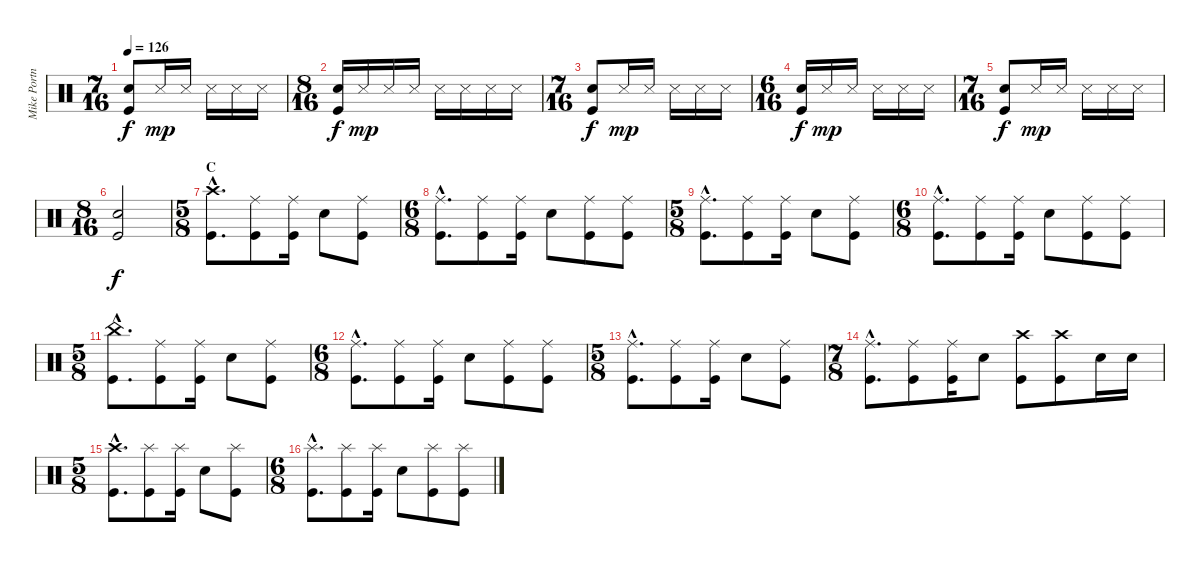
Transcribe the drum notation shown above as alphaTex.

\track ("Mike Portnoy" "Mike Portn") {instrument percussion}
\staff {score}
\articulation defaults
\ts (7 16)
\tempo 126
\clef neutral
\ks c
("Electric Snare (hit)" "Kick (hit)").8{dy f} "Snare (side stick) 3".16{dy mp} "Snare (side stick) 3".16 "Snare (side stick) 3".16 "Snare (side stick) 3".16 "Snare (side stick) 3".16 |
\ts (8 16)
("Electric Snare (hit)" "Kick (hit)").16{dy f} "Snare (side stick) 3".16{dy mp} "Snare (side stick) 3".16 "Snare (side stick) 3".16 "Snare (side stick) 3".16 "Snare (side stick) 3".16 "Snare (side stick) 3".16 "Snare (side stick) 3".16 |
\ts (7 16)
("Electric Snare (hit)" "Kick (hit)").8{dy f} "Snare (side stick) 3".16{dy mp} "Snare (side stick) 3".16 "Snare (side stick) 3".16 "Snare (side stick) 3".16 "Snare (side stick) 3".16 |
\ts (6 16)
("Electric Snare (hit)" "Kick (hit)").16{dy f} "Snare (side stick) 3".16{dy mp} "Snare (side stick) 3".16 "Snare (side stick) 3".16 "Snare (side stick) 3".16 "Snare (side stick) 3".16 |
\ts (7 16)
("Electric Snare (hit)" "Kick (hit)").8{dy f} "Snare (side stick) 3".16{dy mp} "Snare (side stick) 3".16 "Snare (side stick) 3".16 "Snare (side stick) 3".16 "Snare (side stick) 3".16 |
\ts (8 16)
("Electric Snare (hit)" "Kick (hit)").2{dy f} |
\ts (5 8)
\section ("" "C")
("Crash high (hit)"{hac} "Kick (hit)"{hac}).8{d} ("Ride (middle)" "Kick (hit)").8 ("Ride (middle)" "Kick (hit)").16 "Electric Snare (hit)".8 ("Ride (middle)" "Kick (hit)").8 |
\ts (6 8)
("Ride (middle)"{hac} "Kick (hit)"{hac}).8{d} ("Ride (middle)" "Kick (hit)").8 ("Ride (middle)" "Kick (hit)").16 "Electric Snare (hit)".8 ("Ride (middle)" "Kick (hit)").8 ("Ride (middle)" "Kick (hit)").8 |
\ts (5 8)
("Ride (middle)"{hac} "Kick (hit)"{hac}).8{d} ("Ride (middle)" "Kick (hit)").8 ("Ride (middle)" "Kick (hit)").16 "Electric Snare (hit)".8 ("Ride (middle)" "Kick (hit)").8 |
\ts (6 8)
("Ride (middle)"{hac} "Kick (hit)"{hac}).8{d} ("Ride (middle)" "Kick (hit)").8 ("Ride (middle)" "Kick (hit)").16 "Electric Snare (hit)".8 ("Ride (middle)" "Kick (hit)").8 ("Ride (middle)" "Kick (hit)").8 |
\ts (5 8)
("China (hit)"{hac} "Kick (hit)"{hac}).8{d} ("Ride (middle)" "Kick (hit)").8 ("Ride (middle)" "Kick (hit)").16 "Electric Snare (hit)".8 ("Ride (middle)" "Kick (hit)").8 |
\ts (6 8)
("Ride (middle)"{hac} "Kick (hit)"{hac}).8{d} ("Ride (middle)" "Kick (hit)").8 ("Ride (middle)" "Kick (hit)").16 "Electric Snare (hit)".8 ("Ride (middle)" "Kick (hit)").8 ("Ride (middle)" "Kick (hit)").8 |
\ts (5 8)
("Ride (middle)"{hac} "Kick (hit)"{hac}).8{d} ("Ride (middle)" "Kick (hit)").8 ("Ride (middle)" "Kick (hit)").16 "Electric Snare (hit)".8 ("Ride (middle)" "Kick (hit)").8 |
\ts (7 8)
("Ride (middle)"{hac} "Kick (hit)"{hac}).8{d} ("Ride (middle)" "Kick (hit)").8 ("Ride (middle)" "Kick (hit)").16 "Electric Snare (hit)".8 ("Crash high (hit)" "Kick (hit)").8 ("Crash high (hit)" "Kick (hit)").8 "Electric Snare (hit)".16 "Electric Snare (hit)".16 |
\ts (5 8)
("Crash high (hit)"{hac} "Kick (hit)"{hac}).8{d} ("Splash (hit)" "Kick (hit)").8 ("Splash (hit)" "Kick (hit)").16 "Electric Snare (hit)".8 ("Splash (hit)" "Kick (hit)").8 |
\ts (6 8)
("Splash (hit)"{hac} "Kick (hit)"{hac}).8{d} ("Splash (hit)" "Kick (hit)").8 ("Splash (hit)" "Kick (hit)").16 "Electric Snare (hit)".8 ("Splash (hit)" "Kick (hit)").8 ("Splash (hit)" "Kick (hit)").8
